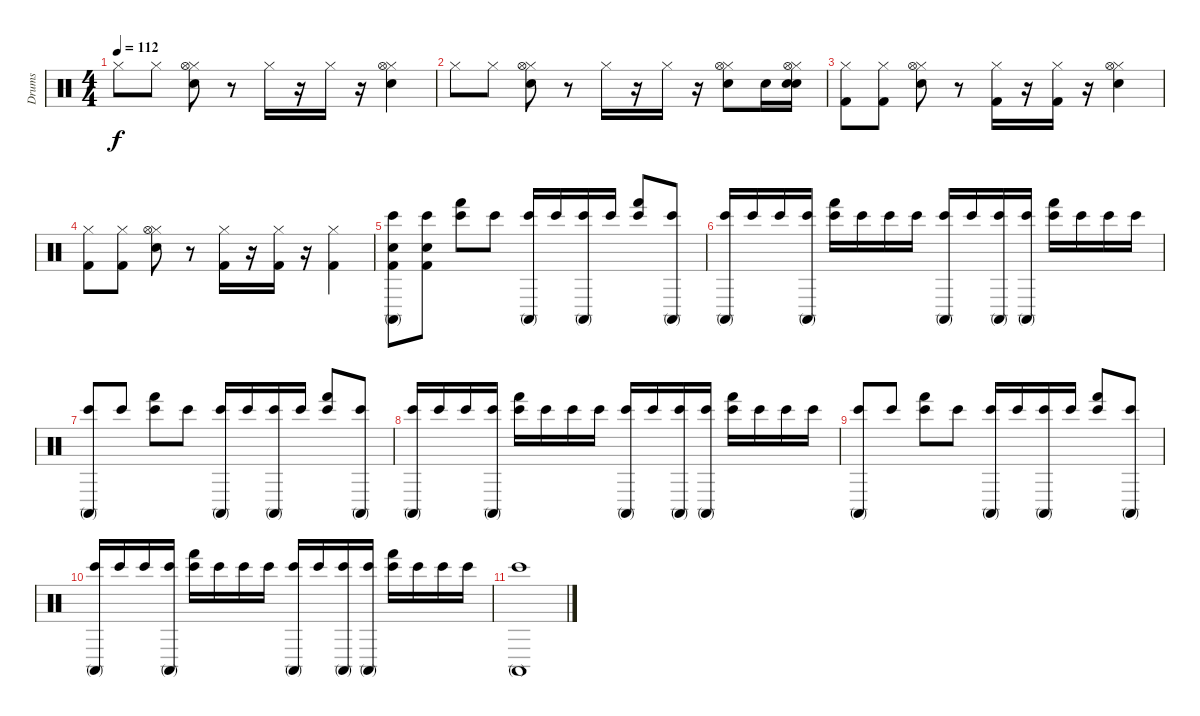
\track ("Drums" "Drums") {instrument percussion}
\staff {score}
\articulation defaults
\ts (4 4)
\tempo 112
\clef neutral
\ks c "Hi-Hat (closed)".8{dy f} "Hi-Hat (closed)".8
("Hi-Hat (closed)" "Hi-Hat (open)" "Electric Snare (hit)").8 r.8 "Hi-Hat (closed)".16 r.16 "Hi-Hat (closed)".16 r.16 ("Hi-Hat (closed)" "Hi-Hat (open)" "Electric Snare (hit)").4 |
"Hi-Hat (closed)".8 "Hi-Hat (closed)".8 ("Hi-Hat (closed)" "Hi-Hat (open)" "Electric Snare (hit)").8 r.8 "Hi-Hat (closed)".16 r.16 "Hi-Hat (closed)".16 r.16 ("Hi-Hat (closed)" "Hi-Hat (open)" "Electric Snare (hit)").8 "Electric Snare (hit)".16 ("Hi-Hat (closed)" "Hi-Hat (open)" "Electric Snare (hit)" "Snare (hit) 2").16 |
("Hi-Hat (closed)" "Kick (hit) 2").8 ("Hi-Hat (closed)" "Kick (hit) 2").8 ("Hi-Hat (closed)" "Hi-Hat (open)" "Electric Snare (hit)").8 r.8 ("Hi-Hat (closed)" "Kick (hit) 2").16 r.16 ("Hi-Hat (closed)" "Kick (hit) 2").16 r.16 ("Hi-Hat (closed)" "Hi-Hat (open)" "Electric Snare (hit)").4 |
("Hi-Hat (closed)" "Kick (hit) 2").8 ("Hi-Hat (closed)" "Kick (hit) 2").8 ("Hi-Hat (closed)" "Hi-Hat (open)" "Electric Snare (hit)").8 r.8 ("Hi-Hat (closed)" "Kick (hit) 2").16 r.16 ("Hi-Hat (closed)" "Kick (hit) 2").16 r.16 ("Hi-Hat (closed)" "Kick (hit) 2").4 |
("Conga high (mute)" "Bongo High (hit)" "Snare (hit) 2" "Kick (hit) 2").8 ("Bongo High (hit)" "Snare (hit) 2" "Kick (hit) 2").8 ("Hand (hit)" "Bongo High (hit)").8{volume 9} "Bongo High (hit)".8 ("Conga high (mute)" "Bongo High (hit)").16 "Bongo High (hit)".16 ("Conga high (mute)" "Bongo High (hit)").16 "Bongo High (hit)".16 ("Hand (hit)" "Bongo High (hit)").8 ("Conga high (mute)" "Bongo High (hit)").8 |
("Conga high (mute)" "Bongo High (hit)").16 "Bongo High (hit)".16 "Bongo High (hit)".16 ("Conga high (mute)" "Bongo High (hit)").16 ("Hand (hit)" "Bongo High (hit)").16 "Bongo High (hit)".16 "Bongo High (hit)".16 "Bongo High (hit)".16 ("Conga high (mute)" "Bongo High (hit)").16 "Bongo High (hit)".16 ("Conga high (mute)" "Bongo High (hit)").16 ("Conga high (mute)" "Bongo High (hit)").16 ("Hand (hit)" "Bongo High (hit)").16 "Bongo High (hit)".16 "Bongo High (hit)".16 "Bongo High (hit)".16 |
("Conga high (mute)" "Bongo High (hit)").8 "Bongo High (hit)".8 ("Hand (hit)" "Bongo High (hit)").8 "Bongo High (hit)".8 ("Conga high (mute)" "Bongo High (hit)").16 "Bongo High (hit)".16 ("Conga high (mute)" "Bongo High (hit)").16 "Bongo High (hit)".16 ("Hand (hit)" "Bongo High (hit)").8 ("Conga high (mute)" "Bongo High (hit)").8 |
("Conga high (mute)" "Bongo High (hit)").16 "Bongo High (hit)".16 "Bongo High (hit)".16 ("Conga high (mute)" "Bongo High (hit)").16 ("Hand (hit)" "Bongo High (hit)").16 "Bongo High (hit)".16 "Bongo High (hit)".16 "Bongo High (hit)".16 ("Conga high (mute)" "Bongo High (hit)").16 "Bongo High (hit)".16 ("Conga high (mute)" "Bongo High (hit)").16 ("Conga high (mute)" "Bongo High (hit)").16 ("Hand (hit)" "Bongo High (hit)").16 "Bongo High (hit)".16 "Bongo High (hit)".16 "Bongo High (hit)".16 |
("Conga high (mute)" "Bongo High (hit)").8{volume 8} "Bongo High (hit)".8 ("Hand (hit)" "Bongo High (hit)").8 "Bongo High (hit)".8 ("Conga high (mute)" "Bongo High (hit)").16 "Bongo High (hit)".16 ("Conga high (mute)" "Bongo High (hit)").16 "Bongo High (hit)".16 ("Hand (hit)" "Bongo High (hit)").8 ("Conga high (mute)" "Bongo High (hit)").8 |
("Conga high (mute)" "Bongo High (hit)").16 "Bongo High (hit)".16 "Bongo High (hit)".16 ("Conga high (mute)" "Bongo High (hit)").16 ("Hand (hit)" "Bongo High (hit)").16 "Bongo High (hit)".16 "Bongo High (hit)".16 "Bongo High (hit)".16 ("Conga high (mute)" "Bongo High (hit)").16 "Bongo High (hit)".16 ("Conga high (mute)" "Bongo High (hit)").16 ("Conga high (mute)" "Bongo High (hit)").16 ("Hand (hit)" "Bongo High (hit)").16 "Bongo High (hit)".16 "Bongo High (hit)".16 "Bongo High (hit)".16 |
("Conga high (mute)" "Bongo High (hit)").1
